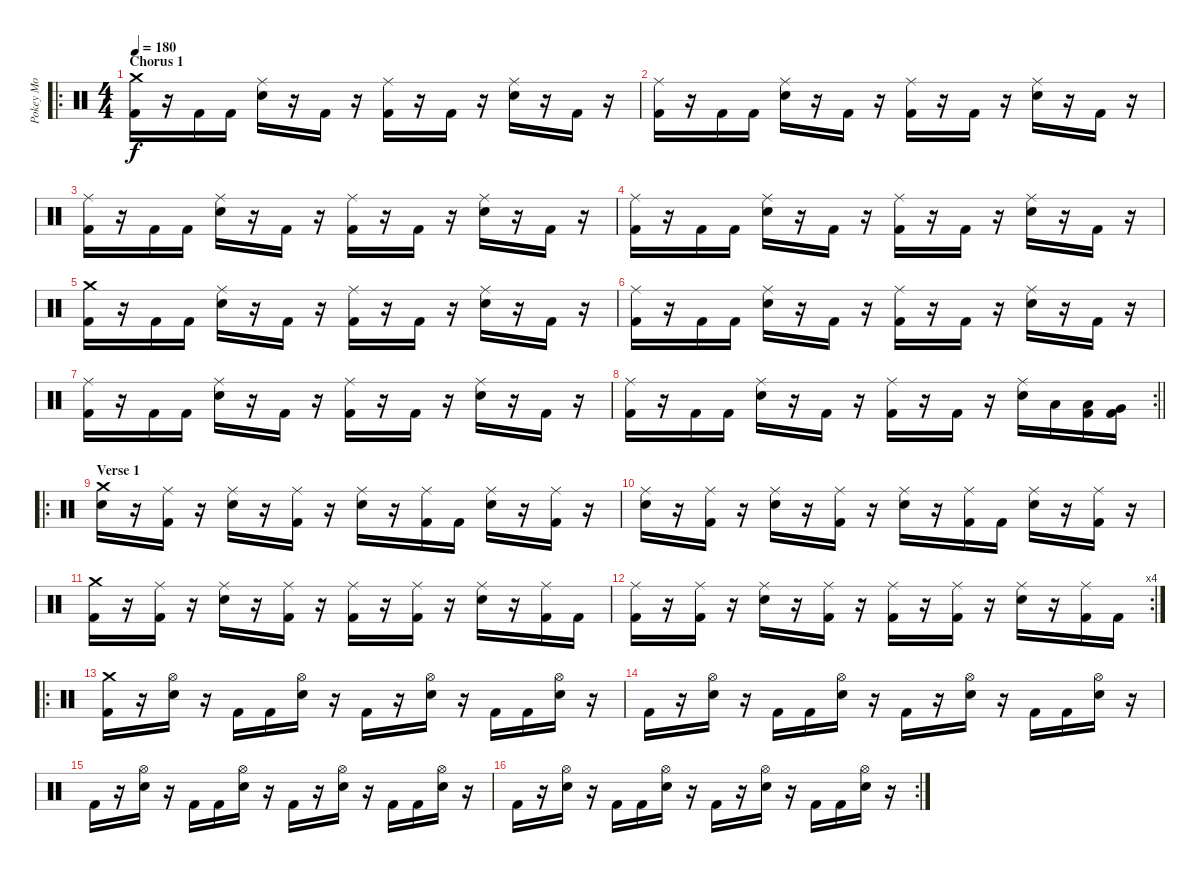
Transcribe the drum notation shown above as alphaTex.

\track ("Pokey Mo" "Pokey Mo") {instrument percussion}
\staff {score}
\articulation defaults
\ro
\ts (4 4)
\section ("" "Chorus 1")
\tempo 180
\clef neutral
\ks c
("Crash medium (hit)" "Kick (hit) 2").16{dy f} r.16 "Kick (hit) 2".16 "Kick (hit) 2".16 ("Ride (middle)" "Electric Snare (hit)").16 r.16 "Kick (hit) 2".16 r.16 ("Ride (middle)" "Kick (hit) 2").16 r.16 "Kick (hit) 2".16 r.16 ("Ride (middle)" "Electric Snare (hit)").16 r.16 "Kick (hit) 2".16 r.16 |
("Ride (middle)" "Kick (hit) 2").16 r.16 "Kick (hit) 2".16 "Kick (hit) 2".16 ("Ride (middle)" "Electric Snare (hit)").16 r.16 "Kick (hit) 2".16 r.16 ("Ride (middle)" "Kick (hit) 2").16 r.16 "Kick (hit) 2".16 r.16 ("Ride (middle)" "Electric Snare (hit)").16 r.16 "Kick (hit) 2".16 r.16 |
("Ride (middle)" "Kick (hit) 2").16 r.16 "Kick (hit) 2".16 "Kick (hit) 2".16 ("Ride (middle)" "Electric Snare (hit)").16 r.16 "Kick (hit) 2".16 r.16 ("Ride (middle)" "Kick (hit) 2").16 r.16 "Kick (hit) 2".16 r.16 ("Ride (middle)" "Electric Snare (hit)").16 r.16 "Kick (hit) 2".16 r.16 |
("Ride (middle)" "Kick (hit) 2").16 r.16 "Kick (hit) 2".16 "Kick (hit) 2".16 ("Ride (middle)" "Electric Snare (hit)").16 r.16 "Kick (hit) 2".16 r.16 ("Ride (middle)" "Kick (hit) 2").16 r.16 "Kick (hit) 2".16 r.16 ("Ride (middle)" "Electric Snare (hit)").16 r.16 "Kick (hit) 2".16 r.16 |
("Crash medium (hit)" "Kick (hit) 2").16 r.16 "Kick (hit) 2".16 "Kick (hit) 2".16 ("Ride (middle)" "Electric Snare (hit)").16 r.16 "Kick (hit) 2".16 r.16 ("Ride (middle)" "Kick (hit) 2").16 r.16 "Kick (hit) 2".16 r.16 ("Ride (middle)" "Electric Snare (hit)").16 r.16 "Kick (hit) 2".16 r.16 |
("Ride (middle)" "Kick (hit) 2").16 r.16 "Kick (hit) 2".16 "Kick (hit) 2".16 ("Ride (middle)" "Electric Snare (hit)").16 r.16 "Kick (hit) 2".16 r.16 ("Ride (middle)" "Kick (hit) 2").16 r.16 "Kick (hit) 2".16 r.16 ("Ride (middle)" "Electric Snare (hit)").16 r.16 "Kick (hit) 2".16 r.16 |
("Ride (middle)" "Kick (hit) 2").16 r.16 "Kick (hit) 2".16 "Kick (hit) 2".16 ("Ride (middle)" "Electric Snare (hit)").16 r.16 "Kick (hit) 2".16 r.16 ("Ride (middle)" "Kick (hit) 2").16 r.16 "Kick (hit) 2".16 r.16 ("Ride (middle)" "Electric Snare (hit)").16 r.16 "Kick (hit) 2".16 r.16 |
\rc 2
\barLineRight lightlight
("Ride (middle)" "Kick (hit) 2").16 r.16 "Kick (hit) 2".16 "Kick (hit) 2".16 ("Ride (middle)" "Electric Snare (hit)").16 r.16 "Kick (hit) 2".16 r.16 ("Ride (middle)" "Kick (hit) 2").16 r.16 "Kick (hit) 2".16 r.16 ("Ride (middle)" "Electric Snare (hit)").16 "Low Tom (hit)".16 ("Low Tom (hit)" "Kick (hit) 2").16 ("Very Low Tom (hit)" "Kick (hit) 2").16 |
\ro
\section ("" "Verse 1")
("Crash medium (hit)" "Electric Snare (hit)").16 r.16 ("Ride (middle)" "Kick (hit) 2").16 r.16 ("Ride (middle)" "Electric Snare (hit)").16 r.16 ("Ride (middle)" "Kick (hit) 2").16 r.16 ("Ride (middle)" "Electric Snare (hit)").16 r.16 ("Ride (middle)" "Kick (hit) 2").16 "Kick (hit) 2".16 ("Ride (middle)" "Electric Snare (hit)").16 r.16 ("Ride (middle)" "Kick (hit) 2").16 r.16 |
("Ride (middle)" "Electric Snare (hit)").16 r.16 ("Ride (middle)" "Kick (hit) 2").16 r.16 ("Ride (middle)" "Electric Snare (hit)").16 r.16 ("Ride (middle)" "Kick (hit) 2").16 r.16 ("Ride (middle)" "Electric Snare (hit)").16 r.16 ("Ride (middle)" "Kick (hit) 2").16 "Kick (hit) 2".16 ("Ride (middle)" "Electric Snare (hit)").16 r.16 ("Ride (middle)" "Kick (hit) 2").16 r.16 |
("Crash medium (hit)" "Kick (hit) 2").16 r.16 ("Ride (middle)" "Kick (hit) 2").16 r.16 ("Ride (middle)" "Electric Snare (hit)").16 r.16 ("Ride (middle)" "Kick (hit) 2").16 r.16 ("Ride (middle)" "Kick (hit) 2").16 r.16 ("Ride (middle)" "Kick (hit) 2").16 r.16 ("Ride (middle)" "Electric Snare (hit)").16 r.16 ("Ride (middle)" "Kick (hit) 2").16 "Kick (hit) 2".16 |
\rc 4
("Ride (middle)" "Kick (hit) 2").16 r.16 ("Ride (middle)" "Kick (hit) 2").16 r.16 ("Ride (middle)" "Electric Snare (hit)").16 r.16 ("Ride (middle)" "Kick (hit) 2").16 r.16 ("Ride (middle)" "Kick (hit) 2").16 r.16 ("Ride (middle)" "Kick (hit) 2").16 r.16 ("Ride (middle)" "Electric Snare (hit)").16 r.16 ("Ride (middle)" "Kick (hit) 2").16 "Kick (hit) 2".16 |
\ro
("Crash medium (hit)" "Kick (hit) 2").16 r.16 ("Hi-Hat (open)" "Electric Snare (hit)").16 r.16 "Kick (hit) 2".16 "Kick (hit) 2".16 ("Hi-Hat (open)" "Electric Snare (hit)").16 r.16 "Kick (hit) 2".16 r.16 ("Hi-Hat (open)" "Electric Snare (hit)").16 r.16 "Kick (hit) 2".16 "Kick (hit) 2".16 ("Hi-Hat (open)" "Electric Snare (hit)").16 r.16 |
"Kick (hit) 2".16 r.16 ("Hi-Hat (open)" "Electric Snare (hit)").16 r.16 "Kick (hit) 2".16 "Kick (hit) 2".16 ("Hi-Hat (open)" "Electric Snare (hit)").16 r.16 "Kick (hit) 2".16 r.16 ("Hi-Hat (open)" "Electric Snare (hit)").16 r.16 "Kick (hit) 2".16 "Kick (hit) 2".16 ("Hi-Hat (open)" "Electric Snare (hit)").16 r.16 |
"Kick (hit) 2".16 r.16 ("Hi-Hat (open)" "Electric Snare (hit)").16 r.16 "Kick (hit) 2".16 "Kick (hit) 2".16 ("Hi-Hat (open)" "Electric Snare (hit)").16 r.16 "Kick (hit) 2".16 r.16 ("Hi-Hat (open)" "Electric Snare (hit)").16 r.16 "Kick (hit) 2".16 "Kick (hit) 2".16 ("Hi-Hat (open)" "Electric Snare (hit)").16 r.16 |
\rc 2 "Kick (hit) 2".16
r.16 ("Hi-Hat (open)" "Electric Snare (hit)").16 r.16 "Kick (hit) 2".16 "Kick (hit) 2".16 ("Hi-Hat (open)" "Electric Snare (hit)").16 r.16 "Kick (hit) 2".16 r.16 ("Hi-Hat (open)" "Electric Snare (hit)").16 r.16 "Kick (hit) 2".16 "Kick (hit) 2".16 ("Hi-Hat (open)" "Electric Snare (hit)").16 r.16
